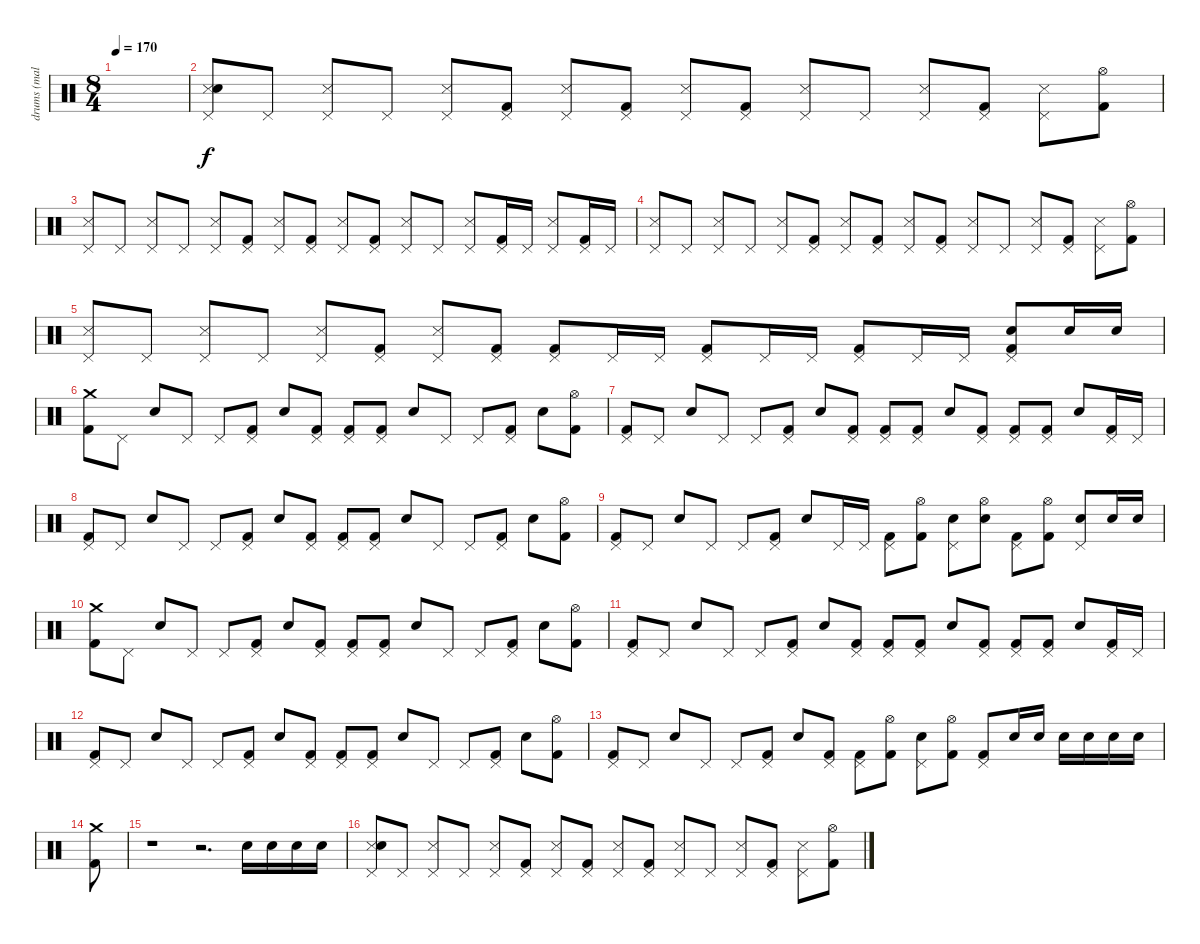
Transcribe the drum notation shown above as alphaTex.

\track ("drums (male)" "drums (mal") {mute instrument percussion}
\staff {score}
\articulation defaults
\ts (8 4)
\tempo 170
\clef neutral
\ks c
|
("Snare (side stick) 3" "Metronome (bell)" "Pedal Hi-Hat (hit)").8 "Pedal Hi-Hat (hit)".8 ("Snare (side stick) 3" "Pedal Hi-Hat (hit)").8 "Pedal Hi-Hat (hit)".8 ("Snare (side stick) 3" "Pedal Hi-Hat (hit)").8 ("Kick (hit) 2" "Pedal Hi-Hat (hit)").8 ("Snare (side stick) 3" "Pedal Hi-Hat (hit)").8 ("Kick (hit) 2" "Pedal Hi-Hat (hit)").8 ("Snare (side stick) 3" "Pedal Hi-Hat (hit)").8 ("Kick (hit) 2" "Pedal Hi-Hat (hit)").8 ("Snare (side stick) 3" "Pedal Hi-Hat (hit)").8 "Pedal Hi-Hat (hit)".8 ("Snare (side stick) 3" "Pedal Hi-Hat (hit)").8 ("Kick (hit) 2" "Pedal Hi-Hat (hit)").8 ("Snare (side stick) 3" "Pedal Hi-Hat (hit)").8 ("Kick (hit) 2" "Hi-Hat (open)").8 |
("Snare (side stick) 3" "Pedal Hi-Hat (hit)").8 "Pedal Hi-Hat (hit)".8 ("Snare (side stick) 3" "Pedal Hi-Hat (hit)").8 "Pedal Hi-Hat (hit)".8 ("Snare (side stick) 3" "Pedal Hi-Hat (hit)").8 ("Kick (hit) 2" "Pedal Hi-Hat (hit)").8 ("Snare (side stick) 3" "Pedal Hi-Hat (hit)").8 ("Kick (hit) 2" "Pedal Hi-Hat (hit)").8 ("Snare (side stick) 3" "Pedal Hi-Hat (hit)").8 ("Kick (hit) 2" "Pedal Hi-Hat (hit)").8 ("Snare (side stick) 3" "Pedal Hi-Hat (hit)").8 "Pedal Hi-Hat (hit)".8 ("Snare (side stick) 3" "Pedal Hi-Hat (hit)").8 ("Kick (hit) 2" "Pedal Hi-Hat (hit)").16 "Pedal Hi-Hat (hit)".16 ("Snare (side stick) 3" "Pedal Hi-Hat (hit)").8 ("Kick (hit) 2" "Pedal Hi-Hat (hit)").16 "Pedal Hi-Hat (hit)".16 |
("Snare (side stick) 3" "Pedal Hi-Hat (hit)").8 "Pedal Hi-Hat (hit)".8 ("Snare (side stick) 3" "Pedal Hi-Hat (hit)").8 "Pedal Hi-Hat (hit)".8 ("Snare (side stick) 3" "Pedal Hi-Hat (hit)").8 ("Kick (hit) 2" "Pedal Hi-Hat (hit)").8 ("Snare (side stick) 3" "Pedal Hi-Hat (hit)").8 ("Kick (hit) 2" "Pedal Hi-Hat (hit)").8 ("Snare (side stick) 3" "Pedal Hi-Hat (hit)").8 ("Kick (hit) 2" "Pedal Hi-Hat (hit)").8 ("Snare (side stick) 3" "Pedal Hi-Hat (hit)").8 "Pedal Hi-Hat (hit)".8 ("Snare (side stick) 3" "Pedal Hi-Hat (hit)").8 ("Kick (hit) 2" "Pedal Hi-Hat (hit)").8 ("Snare (side stick) 3" "Pedal Hi-Hat (hit)").8 ("Kick (hit) 2" "Hi-Hat (open)").8 |
("Snare (side stick) 3" "Pedal Hi-Hat (hit)").8 "Pedal Hi-Hat (hit)".8 ("Snare (side stick) 3" "Pedal Hi-Hat (hit)").8 "Pedal Hi-Hat (hit)".8 ("Snare (side stick) 3" "Pedal Hi-Hat (hit)").8 ("Kick (hit) 2" "Pedal Hi-Hat (hit)").8 ("Snare (side stick) 3" "Pedal Hi-Hat (hit)").8 ("Kick (hit) 2" "Pedal Hi-Hat (hit)").8 ("Kick (hit) 2" "Pedal Hi-Hat (hit)").8 "Pedal Hi-Hat (hit)".16 "Pedal Hi-Hat (hit)".16 ("Kick (hit) 2" "Pedal Hi-Hat (hit)").8 "Pedal Hi-Hat (hit)".16 "Pedal Hi-Hat (hit)".16 ("Kick (hit) 2" "Pedal Hi-Hat (hit)").8 "Pedal Hi-Hat (hit)".16 "Pedal Hi-Hat (hit)".16 ("Kick (hit) 2" "Electric Snare (hit)" "Pedal Hi-Hat (hit)").8 "Electric Snare (hit)".16 "Electric Snare (hit)".16 |
("Kick (hit) 2" "Crash medium (hit)").8 "Pedal Hi-Hat (hit)".8 "Electric Snare (hit)".8 "Pedal Hi-Hat (hit)".8 "Pedal Hi-Hat (hit)".8 ("Kick (hit) 2" "Pedal Hi-Hat (hit)").8 "Electric Snare (hit)".8 ("Kick (hit) 2" "Pedal Hi-Hat (hit)").8 ("Kick (hit) 2" "Pedal Hi-Hat (hit)").8 ("Kick (hit) 2" "Pedal Hi-Hat (hit)").8 "Electric Snare (hit)".8 "Pedal Hi-Hat (hit)".8 "Pedal Hi-Hat (hit)".8 ("Kick (hit) 2" "Pedal Hi-Hat (hit)").8 "Electric Snare (hit)".8 ("Kick (hit) 2" "Hi-Hat (open)").8 |
("Kick (hit) 2" "Pedal Hi-Hat (hit)").8 "Pedal Hi-Hat (hit)".8 "Electric Snare (hit)".8 "Pedal Hi-Hat (hit)".8 "Pedal Hi-Hat (hit)".8 ("Kick (hit) 2" "Pedal Hi-Hat (hit)").8 "Electric Snare (hit)".8 ("Kick (hit) 2" "Pedal Hi-Hat (hit)").8 ("Kick (hit) 2" "Pedal Hi-Hat (hit)").8 ("Kick (hit) 2" "Pedal Hi-Hat (hit)").8 "Electric Snare (hit)".8 ("Kick (hit) 2" "Pedal Hi-Hat (hit)").8 ("Kick (hit) 2" "Pedal Hi-Hat (hit)").8 ("Kick (hit) 2" "Pedal Hi-Hat (hit)").8 "Electric Snare (hit)".8 ("Kick (hit) 2" "Pedal Hi-Hat (hit)").16 "Pedal Hi-Hat (hit)".16 |
("Kick (hit) 2" "Pedal Hi-Hat (hit)").8 "Pedal Hi-Hat (hit)".8 "Electric Snare (hit)".8 "Pedal Hi-Hat (hit)".8 "Pedal Hi-Hat (hit)".8 ("Kick (hit) 2" "Pedal Hi-Hat (hit)").8 "Electric Snare (hit)".8 ("Kick (hit) 2" "Pedal Hi-Hat (hit)").8 ("Kick (hit) 2" "Pedal Hi-Hat (hit)").8 ("Kick (hit) 2" "Pedal Hi-Hat (hit)").8 "Electric Snare (hit)".8 "Pedal Hi-Hat (hit)".8 "Pedal Hi-Hat (hit)".8 ("Kick (hit) 2" "Pedal Hi-Hat (hit)").8 "Electric Snare (hit)".8 ("Kick (hit) 2" "Hi-Hat (open)").8 |
("Kick (hit) 2" "Pedal Hi-Hat (hit)").8 "Pedal Hi-Hat (hit)".8 "Electric Snare (hit)".8 "Pedal Hi-Hat (hit)".8 "Pedal Hi-Hat (hit)".8 ("Kick (hit) 2" "Pedal Hi-Hat (hit)").8 "Electric Snare (hit)".8 "Pedal Hi-Hat (hit)".16 "Pedal Hi-Hat (hit)".16 ("Kick (hit) 2" "Pedal Hi-Hat (hit)").8 ("Kick (hit) 2" "Hi-Hat (open)").8 ("Electric Snare (hit)" "Pedal Hi-Hat (hit)").8 ("Electric Snare (hit)" "Hi-Hat (open)").8 ("Kick (hit) 2" "Pedal Hi-Hat (hit)").8 ("Kick (hit) 2" "Hi-Hat (open)").8 ("Electric Snare (hit)" "Pedal Hi-Hat (hit)").8 "Electric Snare (hit)".16 "Electric Snare (hit)".16 |
("Kick (hit) 2" "Crash medium (hit)").8 "Pedal Hi-Hat (hit)".8 "Electric Snare (hit)".8 "Pedal Hi-Hat (hit)".8 "Pedal Hi-Hat (hit)".8 ("Kick (hit) 2" "Pedal Hi-Hat (hit)").8 "Electric Snare (hit)".8 ("Kick (hit) 2" "Pedal Hi-Hat (hit)").8 ("Kick (hit) 2" "Pedal Hi-Hat (hit)").8 ("Kick (hit) 2" "Pedal Hi-Hat (hit)").8 "Electric Snare (hit)".8 "Pedal Hi-Hat (hit)".8 "Pedal Hi-Hat (hit)".8 ("Kick (hit) 2" "Pedal Hi-Hat (hit)").8 "Electric Snare (hit)".8 ("Kick (hit) 2" "Hi-Hat (open)").8 |
("Kick (hit) 2" "Pedal Hi-Hat (hit)").8 "Pedal Hi-Hat (hit)".8 "Electric Snare (hit)".8 "Pedal Hi-Hat (hit)".8 "Pedal Hi-Hat (hit)".8 ("Kick (hit) 2" "Pedal Hi-Hat (hit)").8 "Electric Snare (hit)".8 ("Kick (hit) 2" "Pedal Hi-Hat (hit)").8 ("Kick (hit) 2" "Pedal Hi-Hat (hit)").8 ("Kick (hit) 2" "Pedal Hi-Hat (hit)").8 "Electric Snare (hit)".8 ("Kick (hit) 2" "Pedal Hi-Hat (hit)").8 ("Kick (hit) 2" "Pedal Hi-Hat (hit)").8 ("Kick (hit) 2" "Pedal Hi-Hat (hit)").8 "Electric Snare (hit)".8 ("Kick (hit) 2" "Pedal Hi-Hat (hit)").16 "Pedal Hi-Hat (hit)".16 |
("Kick (hit) 2" "Pedal Hi-Hat (hit)").8 "Pedal Hi-Hat (hit)".8 "Electric Snare (hit)".8 "Pedal Hi-Hat (hit)".8 "Pedal Hi-Hat (hit)".8 ("Kick (hit) 2" "Pedal Hi-Hat (hit)").8 "Electric Snare (hit)".8 ("Kick (hit) 2" "Pedal Hi-Hat (hit)").8 ("Kick (hit) 2" "Pedal Hi-Hat (hit)").8 ("Kick (hit) 2" "Pedal Hi-Hat (hit)").8 "Electric Snare (hit)".8 "Pedal Hi-Hat (hit)".8 "Pedal Hi-Hat (hit)".8 ("Kick (hit) 2" "Pedal Hi-Hat (hit)").8 "Electric Snare (hit)".8 ("Kick (hit) 2" "Hi-Hat (open)").8 |
("Kick (hit) 2" "Pedal Hi-Hat (hit)").8 "Pedal Hi-Hat (hit)".8 "Electric Snare (hit)".8 "Pedal Hi-Hat (hit)".8 "Pedal Hi-Hat (hit)".8 ("Kick (hit) 2" "Pedal Hi-Hat (hit)").8 "Electric Snare (hit)".8 ("Kick (hit) 2" "Pedal Hi-Hat (hit)").8 ("Kick (hit) 2" "Pedal Hi-Hat (hit)").8 ("Kick (hit) 2" "Hi-Hat (open)").8 ("Electric Snare (hit)" "Pedal Hi-Hat (hit)").8 ("Kick (hit) 2" "Hi-Hat (open)").8 ("Kick (hit) 2" "Pedal Hi-Hat (hit)").8 "Electric Snare (hit)".16 "Electric Snare (hit)".16 "Electric Snare (hit)".16 "Electric Snare (hit)".16 "Electric Snare (hit)".16 "Electric Snare (hit)".16 |
("Kick (hit) 2" "Crash medium (hit)").8 |
r.1 r.2{d} "Metronome (bell)".16 "Metronome (bell)".16 "Metronome (bell)".16 "Metronome (bell)".16 |
("Snare (side stick) 3" "Metronome (bell)" "Pedal Hi-Hat (hit)").8 "Pedal Hi-Hat (hit)".8 ("Snare (side stick) 3" "Pedal Hi-Hat (hit)").8 "Pedal Hi-Hat (hit)".8 ("Snare (side stick) 3" "Pedal Hi-Hat (hit)").8 ("Kick (hit) 2" "Pedal Hi-Hat (hit)").8 ("Snare (side stick) 3" "Pedal Hi-Hat (hit)").8 ("Kick (hit) 2" "Pedal Hi-Hat (hit)").8 ("Snare (side stick) 3" "Pedal Hi-Hat (hit)").8 ("Kick (hit) 2" "Pedal Hi-Hat (hit)").8 ("Snare (side stick) 3" "Pedal Hi-Hat (hit)").8 "Pedal Hi-Hat (hit)".8 ("Snare (side stick) 3" "Pedal Hi-Hat (hit)").8 ("Kick (hit) 2" "Pedal Hi-Hat (hit)").8 ("Snare (side stick) 3" "Pedal Hi-Hat (hit)").8 ("Kick (hit) 2" "Hi-Hat (open)").8
